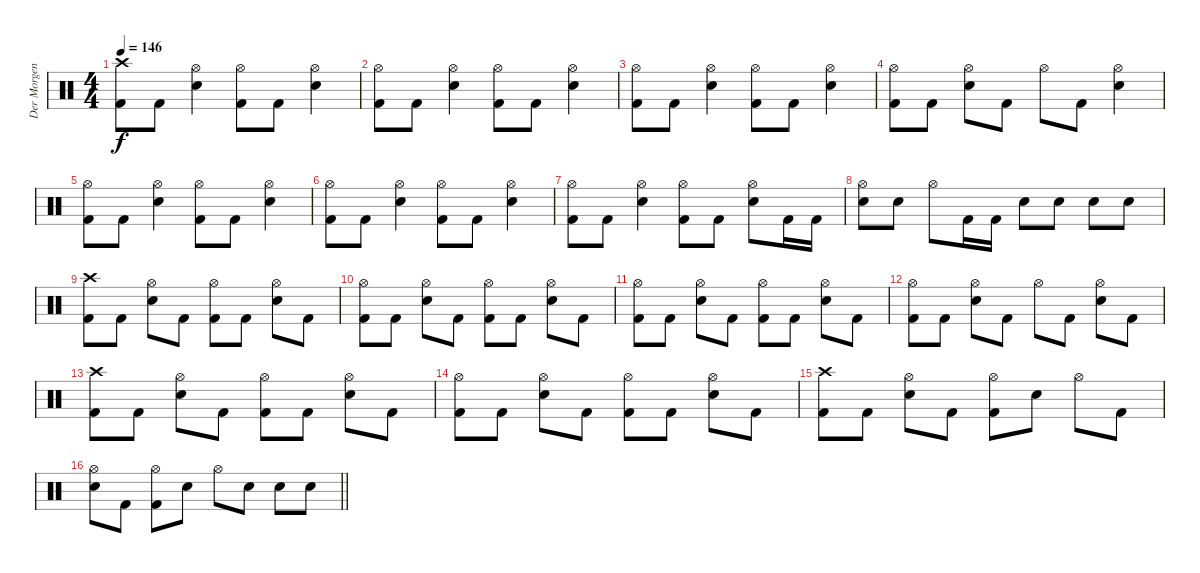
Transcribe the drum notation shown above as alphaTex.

\track ("Der Morgenstern" "Der Morgen") {instrument percussion}
\staff {score}
\articulation defaults
\ts (4 4)
\tempo 146
\clef neutral
\ks c
("Crash high (hit)" "Kick (hit) 2").8{dy f} "Kick (hit) 2".8 ("Hi-Hat (open)" "Electric Snare (hit)").4 ("Hi-Hat (open)" "Kick (hit) 2").8 "Kick (hit) 2".8 ("Hi-Hat (open)" "Electric Snare (hit)").4 |
("Hi-Hat (open)" "Kick (hit) 2").8 "Kick (hit) 2".8 ("Hi-Hat (open)" "Electric Snare (hit)").4 ("Hi-Hat (open)" "Kick (hit) 2").8 "Kick (hit) 2".8 ("Hi-Hat (open)" "Electric Snare (hit)").4 |
("Hi-Hat (open)" "Kick (hit) 2").8 "Kick (hit) 2".8 ("Hi-Hat (open)" "Electric Snare (hit)").4 ("Hi-Hat (open)" "Kick (hit) 2").8 "Kick (hit) 2".8 ("Hi-Hat (open)" "Electric Snare (hit)").4 |
("Hi-Hat (open)" "Kick (hit) 2").8 "Kick (hit) 2".8 ("Hi-Hat (open)" "Electric Snare (hit)").8 "Kick (hit) 2".8 "Hi-Hat (open)".8 "Kick (hit) 2".8 ("Hi-Hat (open)" "Electric Snare (hit)").4 |
("Hi-Hat (open)" "Kick (hit) 2").8 "Kick (hit) 2".8 ("Hi-Hat (open)" "Electric Snare (hit)").4 ("Hi-Hat (open)" "Kick (hit) 2").8 "Kick (hit) 2".8 ("Hi-Hat (open)" "Electric Snare (hit)").4 |
("Hi-Hat (open)" "Kick (hit) 2").8 "Kick (hit) 2".8 ("Hi-Hat (open)" "Electric Snare (hit)").4 ("Hi-Hat (open)" "Kick (hit) 2").8 "Kick (hit) 2".8 ("Hi-Hat (open)" "Electric Snare (hit)").4 |
("Hi-Hat (open)" "Kick (hit) 2").8 "Kick (hit) 2".8 ("Hi-Hat (open)" "Electric Snare (hit)").4 ("Hi-Hat (open)" "Kick (hit) 2").8 "Kick (hit) 2".8 ("Hi-Hat (open)" "Electric Snare (hit)").8 "Kick (hit) 2".16 "Kick (hit) 2".16 |
("Hi-Hat (open)" "Electric Snare (hit)").8 "Electric Snare (hit)".8 "Hi-Hat (open)".8 "Kick (hit) 2".16 "Kick (hit) 2".16 "Electric Snare (hit)".8 "Electric Snare (hit)".8 "Electric Snare (hit)".8 "Electric Snare (hit)".8 |
("Crash high (hit)" "Kick (hit) 2").8 "Kick (hit) 2".8 ("Hi-Hat (open)" "Electric Snare (hit)").8 "Kick (hit) 2".8 ("Hi-Hat (open)" "Kick (hit) 2").8 "Kick (hit) 2".8 ("Hi-Hat (open)" "Electric Snare (hit)").8 "Kick (hit) 2".8 |
("Hi-Hat (open)" "Kick (hit) 2").8 "Kick (hit) 2".8 ("Hi-Hat (open)" "Electric Snare (hit)").8 "Kick (hit) 2".8 ("Hi-Hat (open)" "Kick (hit) 2").8 "Kick (hit) 2".8 ("Hi-Hat (open)" "Electric Snare (hit)").8 "Kick (hit) 2".8 |
("Hi-Hat (open)" "Kick (hit) 2").8 "Kick (hit) 2".8 ("Hi-Hat (open)" "Electric Snare (hit)").8 "Kick (hit) 2".8 ("Hi-Hat (open)" "Kick (hit) 2").8 "Kick (hit) 2".8 ("Hi-Hat (open)" "Electric Snare (hit)").8 "Kick (hit) 2".8 |
("Hi-Hat (open)" "Kick (hit) 2").8 "Kick (hit) 2".8 ("Hi-Hat (open)" "Electric Snare (hit)").8 "Kick (hit) 2".8 "Hi-Hat (open)".8 "Kick (hit) 2".8 ("Hi-Hat (open)" "Electric Snare (hit)").8 "Kick (hit) 2".8 |
("Crash high (hit)" "Kick (hit) 2").8 "Kick (hit) 2".8 ("Hi-Hat (open)" "Electric Snare (hit)").8 "Kick (hit) 2".8 ("Hi-Hat (open)" "Kick (hit) 2").8 "Kick (hit) 2".8 ("Hi-Hat (open)" "Electric Snare (hit)").8 "Kick (hit) 2".8 |
("Hi-Hat (open)" "Kick (hit) 2").8 "Kick (hit) 2".8 ("Hi-Hat (open)" "Electric Snare (hit)").8 "Kick (hit) 2".8 ("Hi-Hat (open)" "Kick (hit) 2").8 "Kick (hit) 2".8 ("Hi-Hat (open)" "Electric Snare (hit)").8 "Kick (hit) 2".8 |
("Crash high (hit)" "Kick (hit) 2").8 "Kick (hit) 2".8 ("Hi-Hat (open)" "Electric Snare (hit)").8 "Kick (hit) 2".8 ("Hi-Hat (open)" "Kick (hit) 2").8 "Electric Snare (hit)".8 "Hi-Hat (open)".8 "Kick (hit) 2".8 |
\barLineRight lightlight
("Hi-Hat (open)" "Electric Snare (hit)").8 "Kick (hit) 2".8 ("Hi-Hat (open)" "Kick (hit) 2").8 "Electric Snare (hit)".8 "Hi-Hat (open)".8 "Electric Snare (hit)".8 "Electric Snare (hit)".8 "Electric Snare (hit)".8
